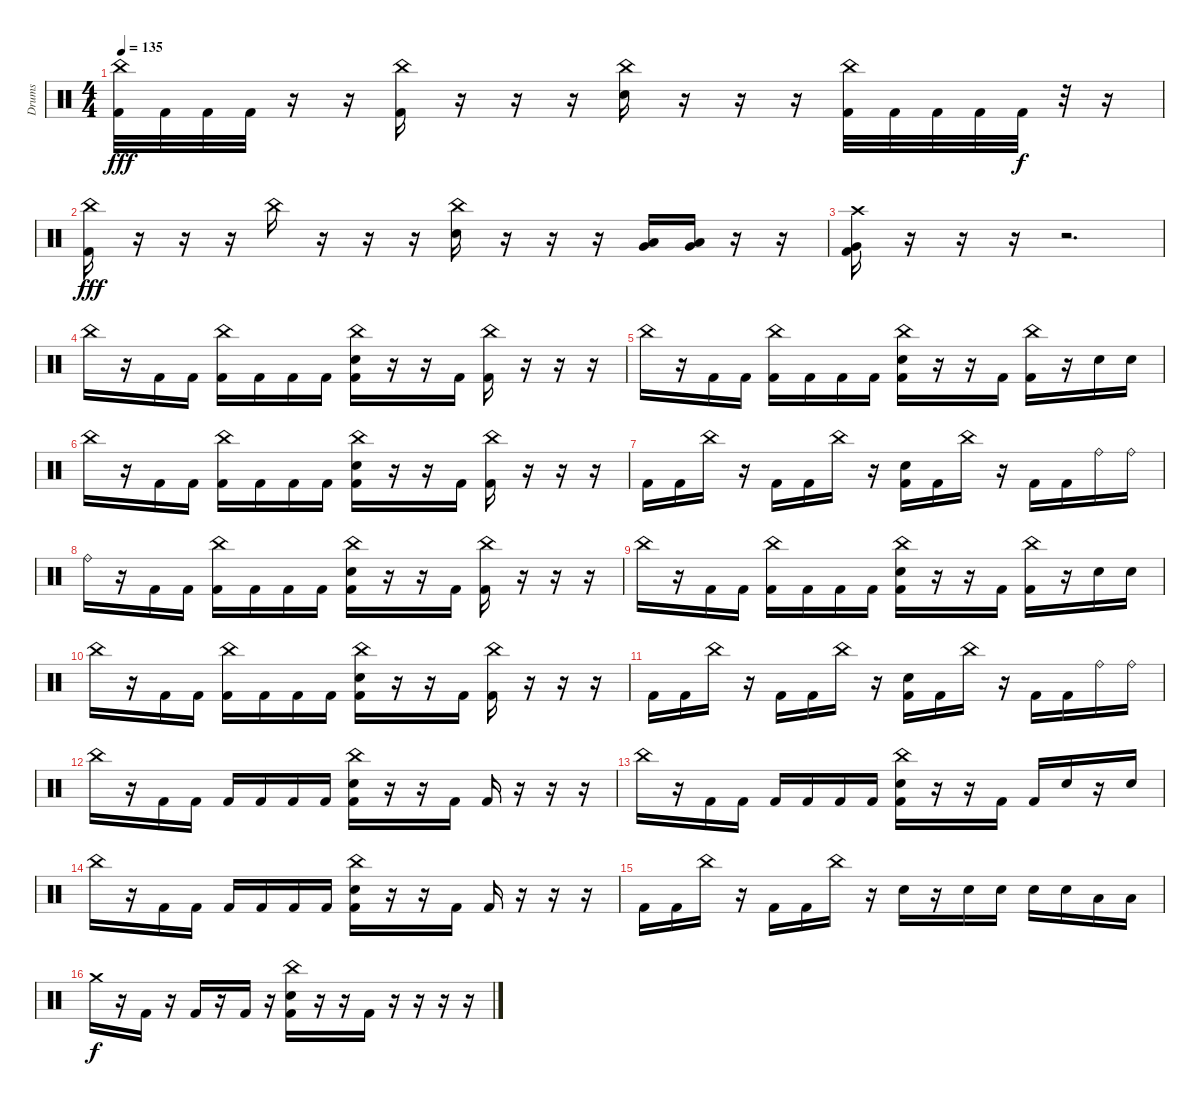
\track ("Drums" "Drums") {instrument percussion}
\staff {score}
\articulation defaults
\ts (4 4)
\tempo 135
\clef neutral
\ks c
("China (hit)" "Kick (hit) 2").32{dy fff} "Kick (hit) 2".32 "Kick (hit) 2".32 "Kick (hit) 2".32 r.16 r.16 ("China (hit)" "Kick (hit) 2").16 r.16 r.16 r.16 ("China (hit)" "Electric Snare (hit)").16 r.16 r.16 r.16 ("China (hit)" "Kick (hit) 2").32 "Kick (hit) 2".32 "Kick (hit) 2".32 "Kick (hit) 2".32 "Kick (hit) 2".32{dy f} r.32 r.16 |
("China (hit)" "Kick (hit) 2").16{dy fff} r.16 r.16 r.16 "China (hit)".16 r.16 r.16 r.16 ("China (hit)" "Electric Snare (hit)").16 r.16 r.16 r.16 ("Low Tom (hit)" "Very Low Tom (hit)").16 ("Low Tom (hit)" "Very Low Tom (hit)").16 r.16 r.16 |
("Crash high (hit)" "Very Low Tom (hit)" "Kick (hit) 2").16 r.16 r.16 r.16 r.2{d} |
"China (hit)".16 r.16 "Kick (hit) 2".16 "Kick (hit) 2".16 ("China (hit)" "Kick (hit) 2").16 "Kick (hit) 2".16 "Kick (hit) 2".16 "Kick (hit) 2".16 ("China (hit)" "Electric Snare (hit)" "Kick (hit) 2").16 r.16 r.16 "Kick (hit) 2".16 ("China (hit)" "Kick (hit) 2").16 r.16 r.16 r.16 |
"China (hit)".16 r.16 "Kick (hit) 2".16 "Kick (hit) 2".16 ("China (hit)" "Kick (hit) 2").16 "Kick (hit) 2".16 "Kick (hit) 2".16 "Kick (hit) 2".16 ("China (hit)" "Electric Snare (hit)" "Kick (hit) 2").16 r.16 r.16 "Kick (hit) 2".16 ("China (hit)" "Kick (hit) 2").16 r.16 "Electric Snare (hit)".16 "Electric Snare (hit)".16 |
"China (hit)".16 r.16 "Kick (hit) 2".16 "Kick (hit) 2".16 ("China (hit)" "Kick (hit) 2").16 "Kick (hit) 2".16 "Kick (hit) 2".16 "Kick (hit) 2".16 ("China (hit)" "Electric Snare (hit)" "Kick (hit) 2").16 r.16 r.16 "Kick (hit) 2".16 ("China (hit)" "Kick (hit) 2").16 r.16 r.16 r.16 |
"Kick (hit) 2".16 "Kick (hit) 2".16 "China (hit)".16 r.16 "Kick (hit) 2".16 "Kick (hit) 2".16 "China (hit)".16 r.16 ("Electric Snare (hit)" "Kick (hit) 2").16 "Kick (hit) 2".16 "China (hit)".16 r.16 "Kick (hit) 2".16 "Kick (hit) 2".16 "Ride (bell)".16 "Ride (bell)".16 |
"Ride (bell)".16 r.16 "Kick (hit) 2".16 "Kick (hit) 2".16 ("China (hit)" "Kick (hit) 2").16 "Kick (hit) 2".16 "Kick (hit) 2".16 "Kick (hit) 2".16 ("China (hit)" "Electric Snare (hit)" "Kick (hit) 2").16 r.16 r.16 "Kick (hit) 2".16 ("China (hit)" "Kick (hit) 2").16 r.16 r.16 r.16 |
"China (hit)".16 r.16 "Kick (hit) 2".16 "Kick (hit) 2".16 ("China (hit)" "Kick (hit) 2").16 "Kick (hit) 2".16 "Kick (hit) 2".16 "Kick (hit) 2".16 ("China (hit)" "Electric Snare (hit)" "Kick (hit) 2").16 r.16 r.16 "Kick (hit) 2".16 ("China (hit)" "Kick (hit) 2").16 r.16 "Electric Snare (hit)".16 "Electric Snare (hit)".16 |
"China (hit)".16 r.16 "Kick (hit) 2".16 "Kick (hit) 2".16 ("China (hit)" "Kick (hit) 2").16 "Kick (hit) 2".16 "Kick (hit) 2".16 "Kick (hit) 2".16 ("China (hit)" "Electric Snare (hit)" "Kick (hit) 2").16 r.16 r.16 "Kick (hit) 2".16 ("China (hit)" "Kick (hit) 2").16 r.16 r.16 r.16 |
"Kick (hit) 2".16 "Kick (hit) 2".16 "China (hit)".16 r.16 "Kick (hit) 2".16 "Kick (hit) 2".16 "China (hit)".16 r.16 ("Electric Snare (hit)" "Kick (hit) 2").16 "Kick (hit) 2".16 "China (hit)".16 r.16 "Kick (hit) 2".16 "Kick (hit) 2".16 "Ride (bell)".16 "Ride (bell)".16 |
"China (hit)".16 r.16 "Kick (hit) 2".16 "Kick (hit) 2".16 "Kick (hit) 2".16 "Kick (hit) 2".16 "Kick (hit) 2".16 "Kick (hit) 2".16 ("China (hit)" "Electric Snare (hit)" "Kick (hit) 2").16 r.16 r.16 "Kick (hit) 2".16 "Kick (hit) 2".16 r.16 r.16 r.16 |
"China (hit)".16 r.16 "Kick (hit) 2".16 "Kick (hit) 2".16 "Kick (hit) 2".16 "Kick (hit) 2".16 "Kick (hit) 2".16 "Kick (hit) 2".16 ("China (hit)" "Electric Snare (hit)" "Kick (hit) 2").16 r.16 r.16 "Kick (hit) 2".16 "Kick (hit) 2".16 "Electric Snare (hit)".16 r.16 "Electric Snare (hit)".16 |
"China (hit)".16 r.16 "Kick (hit) 2".16 "Kick (hit) 2".16 "Kick (hit) 2".16 "Kick (hit) 2".16 "Kick (hit) 2".16 "Kick (hit) 2".16 ("China (hit)" "Electric Snare (hit)" "Kick (hit) 2").16 r.16 r.16 "Kick (hit) 2".16 "Kick (hit) 2".16 r.16 r.16 r.16 |
"Kick (hit) 2".16 "Kick (hit) 2".16 "China (hit)".16 r.16 "Kick (hit) 2".16 "Kick (hit) 2".16 "China (hit)".16 r.16 "Electric Snare (hit)".16 r.16 "Electric Snare (hit)".16 "Electric Snare (hit)".16 "Electric Snare (hit)".16 "Electric Snare (hit)".16 "Low Tom (hit)".16 "Low Tom (hit)".16 |
"Crash medium (hit)".16{dy f} r.16 "Kick (hit) 2".16 r.16 "Kick (hit) 2".16 r.16 "Kick (hit) 2".16 r.16 ("China (hit)" "Electric Snare (hit)" "Kick (hit) 2").16 r.16 r.16 "Kick (hit) 2".16 r.16 r.16 r.16 r.16
